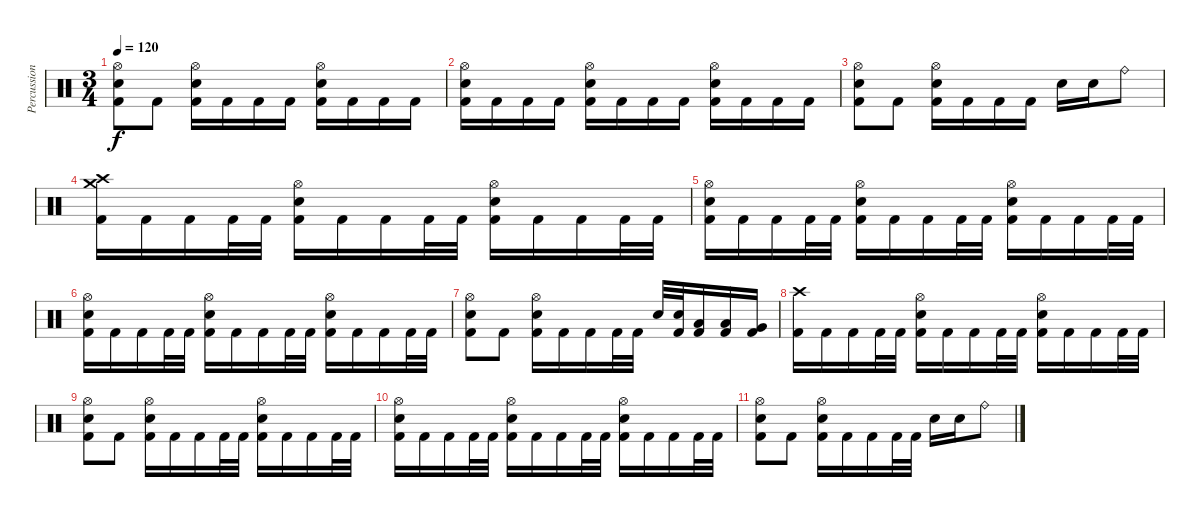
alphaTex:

\track ("Percussion" "Percussion") {instrument percussion}
\staff {score}
\articulation defaults
\ts (3 4)
\tempo 120
\clef neutral
\ks c
("Hi-Hat (open)" "Electric Snare (hit)" "Kick (hit) 2").8{dy f} "Kick (hit) 2".8 ("Hi-Hat (open)" "Electric Snare (hit)" "Kick (hit) 2").16 "Kick (hit) 2".16 "Kick (hit) 2".16 "Kick (hit) 2".16 ("Hi-Hat (open)" "Electric Snare (hit)" "Kick (hit) 2").16 "Kick (hit) 2".16 "Kick (hit) 2".16 "Kick (hit) 2".16 |
("Hi-Hat (open)" "Electric Snare (hit)" "Kick (hit) 2").16 "Kick (hit) 2".16 "Kick (hit) 2".16 "Kick (hit) 2".16 ("Hi-Hat (open)" "Electric Snare (hit)" "Kick (hit) 2").16 "Kick (hit) 2".16 "Kick (hit) 2".16 "Kick (hit) 2".16 ("Hi-Hat (open)" "Electric Snare (hit)" "Kick (hit) 2").16 "Kick (hit) 2".16 "Kick (hit) 2".16 "Kick (hit) 2".16 |
("Hi-Hat (open)" "Electric Snare (hit)" "Kick (hit) 2").8 "Kick (hit) 2".8 ("Hi-Hat (open)" "Electric Snare (hit)" "Kick (hit) 2").16 "Kick (hit) 2".16 "Kick (hit) 2".16 "Kick (hit) 2".16 "Electric Snare (hit)".16 "Electric Snare (hit)".16 "Ride (bell)".8 |
("Crash high (hit)" "Crash medium (hit)" "Kick (hit) 2").16 "Kick (hit) 2".16 "Kick (hit) 2".16 "Kick (hit) 2".32 "Kick (hit) 2".32 ("Hi-Hat (open)" "Electric Snare (hit)" "Kick (hit) 2").16 "Kick (hit) 2".16 "Kick (hit) 2".16 "Kick (hit) 2".32 "Kick (hit) 2".32 ("Hi-Hat (open)" "Electric Snare (hit)" "Kick (hit) 2").16 "Kick (hit) 2".16 "Kick (hit) 2".16 "Kick (hit) 2".32 "Kick (hit) 2".32 |
("Hi-Hat (open)" "Electric Snare (hit)" "Kick (hit) 2").16 "Kick (hit) 2".16 "Kick (hit) 2".16 "Kick (hit) 2".32 "Kick (hit) 2".32 ("Hi-Hat (open)" "Electric Snare (hit)" "Kick (hit) 2").16 "Kick (hit) 2".16 "Kick (hit) 2".16 "Kick (hit) 2".32 "Kick (hit) 2".32 ("Hi-Hat (open)" "Electric Snare (hit)" "Kick (hit) 2").16 "Kick (hit) 2".16 "Kick (hit) 2".16 "Kick (hit) 2".32 "Kick (hit) 2".32 |
("Hi-Hat (open)" "Electric Snare (hit)" "Kick (hit) 2").16 "Kick (hit) 2".16 "Kick (hit) 2".16 "Kick (hit) 2".32 "Kick (hit) 2".32 ("Hi-Hat (open)" "Electric Snare (hit)" "Kick (hit) 2").16 "Kick (hit) 2".16 "Kick (hit) 2".16 "Kick (hit) 2".32 "Kick (hit) 2".32 ("Hi-Hat (open)" "Electric Snare (hit)" "Kick (hit) 2").16 "Kick (hit) 2".16 "Kick (hit) 2".16 "Kick (hit) 2".32 "Kick (hit) 2".32 |
("Hi-Hat (open)" "Electric Snare (hit)" "Kick (hit) 2").8 "Kick (hit) 2".8 ("Hi-Hat (open)" "Electric Snare (hit)" "Kick (hit) 2").16 "Kick (hit) 2".16 "Kick (hit) 2".16 "Kick (hit) 2".32 "Kick (hit) 2".32 "Electric Snare (hit)".32 ("Electric Snare (hit)" "Kick (hit) 2").32 ("Low Tom (hit)" "Kick (hit) 2").16 ("Low Tom (hit)" "Kick (hit) 2").16 ("Very Low Tom (hit)" "Kick (hit) 2").16 |
("Crash high (hit)" "Kick (hit) 2").16 "Kick (hit) 2".16 "Kick (hit) 2".16 "Kick (hit) 2".32 "Kick (hit) 2".32 ("Hi-Hat (open)" "Electric Snare (hit)" "Kick (hit) 2").16 "Kick (hit) 2".16 "Kick (hit) 2".16 "Kick (hit) 2".32 "Kick (hit) 2".32 ("Hi-Hat (open)" "Electric Snare (hit)" "Kick (hit) 2").16 "Kick (hit) 2".16 "Kick (hit) 2".16 "Kick (hit) 2".32 "Kick (hit) 2".32 |
("Hi-Hat (open)" "Electric Snare (hit)" "Kick (hit) 2").8 "Kick (hit) 2".8 ("Hi-Hat (open)" "Electric Snare (hit)" "Kick (hit) 2").16 "Kick (hit) 2".16 "Kick (hit) 2".16 "Kick (hit) 2".32 "Kick (hit) 2".32 ("Hi-Hat (open)" "Electric Snare (hit)" "Kick (hit) 2").16 "Kick (hit) 2".16 "Kick (hit) 2".16 "Kick (hit) 2".32 "Kick (hit) 2".32 |
("Hi-Hat (open)" "Electric Snare (hit)" "Kick (hit) 2").16 "Kick (hit) 2".16 "Kick (hit) 2".16 "Kick (hit) 2".32 "Kick (hit) 2".32 ("Hi-Hat (open)" "Electric Snare (hit)" "Kick (hit) 2").16 "Kick (hit) 2".16 "Kick (hit) 2".16 "Kick (hit) 2".32 "Kick (hit) 2".32 ("Hi-Hat (open)" "Electric Snare (hit)" "Kick (hit) 2").16 "Kick (hit) 2".16 "Kick (hit) 2".16 "Kick (hit) 2".32 "Kick (hit) 2".32 |
("Hi-Hat (open)" "Electric Snare (hit)" "Kick (hit) 2").8 "Kick (hit) 2".8 ("Hi-Hat (open)" "Electric Snare (hit)" "Kick (hit) 2").16 "Kick (hit) 2".16 "Kick (hit) 2".16 "Kick (hit) 2".32 "Kick (hit) 2".32 "Electric Snare (hit)".16 "Electric Snare (hit)".16 "Ride (bell)".8
